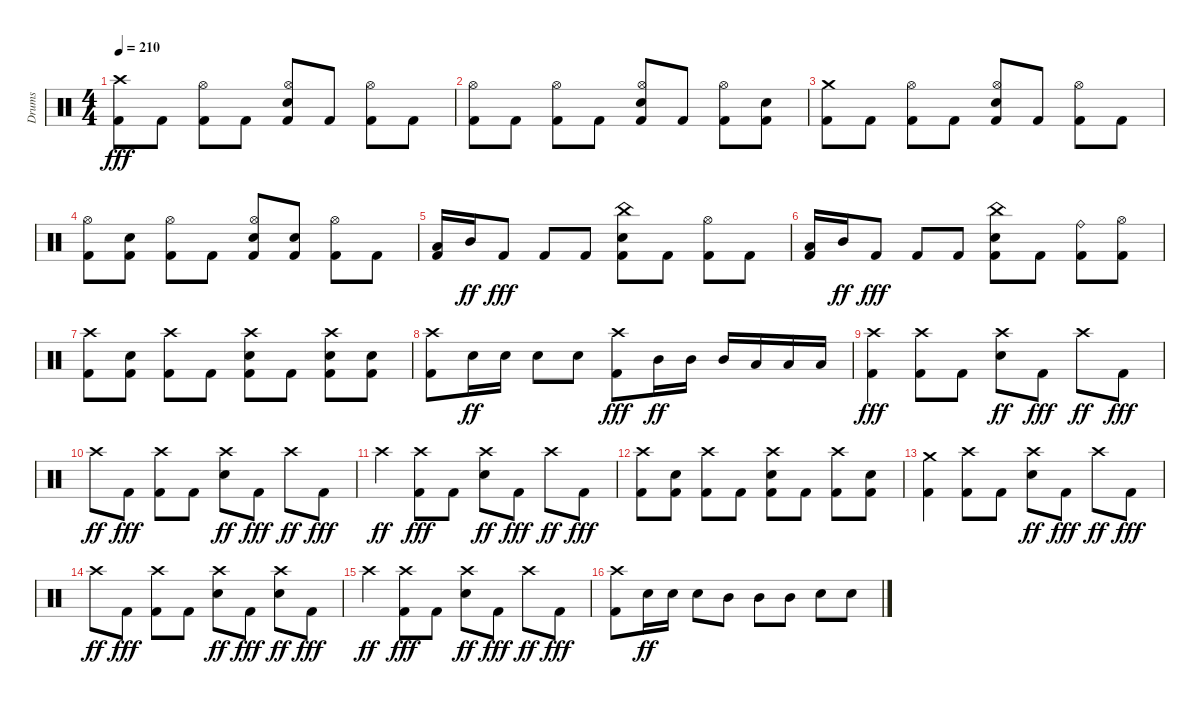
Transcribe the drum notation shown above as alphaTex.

\track ("Drums" "Drums") {instrument percussion}
\staff {score}
\articulation defaults
\ts (4 4)
\tempo 210
\clef neutral
\ks c
("Crash high (hit)" "Kick (hit) 2").8{dy fff} "Kick (hit) 2".8 ("Hi-Hat (open)" "Kick (hit) 2").8 "Kick (hit) 2".8 ("Hi-Hat (open)" "Snare (hit) 2" "Kick (hit) 2").8 "Kick (hit) 2".8 ("Hi-Hat (open)" "Kick (hit) 2").8 "Kick (hit) 2".8 |
("Hi-Hat (open)" "Kick (hit) 2").8 "Kick (hit) 2".8 ("Hi-Hat (open)" "Kick (hit) 2").8 "Kick (hit) 2".8 ("Hi-Hat (open)" "Snare (hit) 2" "Kick (hit) 2").8 "Kick (hit) 2".8 ("Hi-Hat (open)" "Kick (hit) 2").8 ("Snare (hit) 2" "Kick (hit) 2").8 |
("Crash medium (hit)" "Kick (hit) 2").8 "Kick (hit) 2".8 ("Hi-Hat (open)" "Kick (hit) 2").8 "Kick (hit) 2".8 ("Hi-Hat (open)" "Snare (hit) 2" "Kick (hit) 2").8 "Kick (hit) 2".8 ("Hi-Hat (open)" "Kick (hit) 2").8 "Kick (hit) 2".8 |
("Hi-Hat (open)" "Kick (hit) 2").8 ("Snare (hit) 2" "Kick (hit) 2").8 ("Hi-Hat (open)" "Kick (hit) 2").8 "Kick (hit) 2".8 ("Hi-Hat (open)" "Snare (hit) 2" "Kick (hit) 2").8 ("Snare (hit) 2" "Kick (hit) 2").8 ("Hi-Hat (open)" "Kick (hit) 2").8 "Kick (hit) 2".8 |
("Low Tom (hit)" "Kick (hit) 2").16 "Mid Tom (hit)".16{dy ff} "Kick (hit) 2".8{dy fff} "Kick (hit) 2".8 "Kick (hit) 2".8 ("China (hit)" "Snare (hit) 2" "Kick (hit) 2").8 "Kick (hit) 2".8 ("Hi-Hat (open)" "Kick (hit) 2").8 "Kick (hit) 2".8 |
("Low Tom (hit)" "Kick (hit) 2").16 "Mid Tom (hit)".16{dy ff} "Kick (hit) 2".8{dy fff} "Kick (hit) 2".8 "Kick (hit) 2".8 ("China (hit)" "Snare (hit) 2" "Kick (hit) 2").8 "Kick (hit) 2".8 ("Ride (bell)" "Kick (hit) 2").8 ("Hi-Hat (open)" "Kick (hit) 2").8 |
("Crash high (hit)" "Kick (hit) 2").8 ("Snare (hit) 2" "Kick (hit) 2").8 ("Crash high (hit)" "Kick (hit) 2").8 "Kick (hit) 2".8 ("Crash high (hit)" "Snare (hit) 2" "Kick (hit) 2").8 "Kick (hit) 2".8 ("Crash high (hit)" "Snare (hit) 2" "Kick (hit) 2").8 ("Snare (hit) 2" "Kick (hit) 2").8 |
("Crash high (hit)" "Kick (hit) 2").8 "Snare (hit) 2".16{dy ff} "Snare (hit) 2".16 "Snare (hit) 2".8 "Snare (hit) 2".8 ("Crash high (hit)" "Kick (hit) 2").8{dy fff} "Mid Tom (hit)".16{dy ff} "Mid Tom (hit)".16 "Mid Tom (hit)".16 "Low Tom (hit)".16 "Low Tom (hit)".16 "Low Tom (hit)".16 |
("Crash high (hit)" "Kick (hit) 2").4{dy fff} ("Crash high (hit)" "Kick (hit) 2").8 "Kick (hit) 2".8 ("Crash high (hit)" "Snare (hit) 2").8{dy ff} "Kick (hit) 2".8{dy fff} "Crash high (hit)".8{dy ff} "Kick (hit) 2".8{dy fff} |
"Crash high (hit)".8{dy ff} "Kick (hit) 2".8{dy fff} ("Crash high (hit)" "Kick (hit) 2").8 "Kick (hit) 2".8 ("Crash high (hit)" "Snare (hit) 2").8{dy ff} "Kick (hit) 2".8{dy fff} "Crash high (hit)".8{dy ff} "Kick (hit) 2".8{dy fff} |
"Crash high (hit)".4{dy ff} ("Crash high (hit)" "Kick (hit) 2").8{dy fff} "Kick (hit) 2".8 ("Crash high (hit)" "Snare (hit) 2").8{dy ff} "Kick (hit) 2".8{dy fff} "Crash high (hit)".8{dy ff} "Kick (hit) 2".8{dy fff} |
("Crash high (hit)" "Kick (hit) 2").8 ("Snare (hit) 2" "Kick (hit) 2").8 ("Crash high (hit)" "Kick (hit) 2").8 "Kick (hit) 2".8 ("Crash high (hit)" "Snare (hit) 2" "Kick (hit) 2").8 "Kick (hit) 2".8 ("Crash high (hit)" "Kick (hit) 2").8 ("Snare (hit) 2" "Kick (hit) 2").8 |
("Crash medium (hit)" "Kick (hit) 2").4 ("Crash high (hit)" "Kick (hit) 2").8 "Kick (hit) 2".8 ("Crash high (hit)" "Snare (hit) 2").8{dy ff} "Kick (hit) 2".8{dy fff} "Crash high (hit)".8{dy ff} "Kick (hit) 2".8{dy fff} |
"Crash high (hit)".8{dy ff} "Kick (hit) 2".8{dy fff} ("Crash high (hit)" "Kick (hit) 2").8 "Kick (hit) 2".8 ("Crash high (hit)" "Snare (hit) 2").8{dy ff} "Kick (hit) 2".8{dy fff} ("Crash high (hit)" "Snare (hit) 2").8{dy ff} "Kick (hit) 2".8{dy fff} |
"Crash high (hit)".4{dy ff} ("Crash high (hit)" "Kick (hit) 2").8{dy fff} "Kick (hit) 2".8 ("Crash high (hit)" "Snare (hit) 2").8{dy ff} "Kick (hit) 2".8{dy fff} "Crash high (hit)".8{dy ff} "Kick (hit) 2".8{dy fff} |
("Crash high (hit)" "Kick (hit) 2").8 "Snare (hit) 2".16{dy ff} "Snare (hit) 2".16 "Snare (hit) 2".8 "Mid Tom (hit)".8 "Mid Tom (hit)".8 "Mid Tom (hit)".8 "Snare (hit) 2".8 "Snare (hit) 2".8
